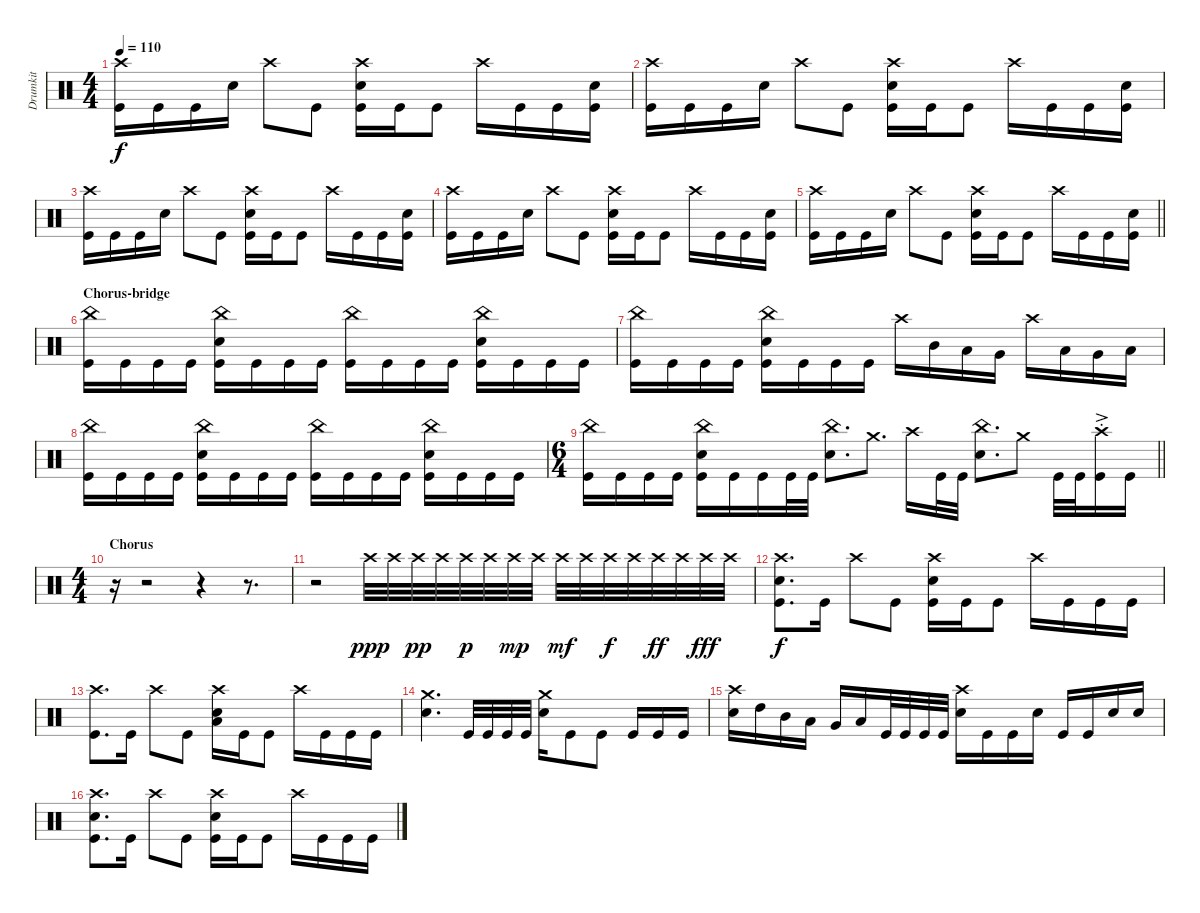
\track ("Drumkit" "Drumkit") {instrument percussion}
\staff {score}
\articulation defaults
\ts (4 4)
\tempo 110
\clef neutral
\ks c
("Crash high (hit)" "Kick (hit)").16{dy f} "Kick (hit)".16 "Kick (hit)".16 "Snare (hit) 2".16 "Crash high (hit)".8 "Kick (hit)".8 ("Crash high (hit)" "Snare (hit) 2" "Kick (hit)").16 "Kick (hit)".16 "Kick (hit)".8 "Crash high (hit)".16 "Kick (hit)".16 "Kick (hit)".16 ("Snare (hit) 2" "Kick (hit)").16 |
("Crash high (hit)" "Kick (hit)").16 "Kick (hit)".16 "Kick (hit)".16 "Snare (hit) 2".16 "Crash high (hit)".8 "Kick (hit)".8 ("Crash high (hit)" "Snare (hit) 2" "Kick (hit)").16 "Kick (hit)".16 "Kick (hit)".8 "Crash high (hit)".16 "Kick (hit)".16 "Kick (hit)".16 ("Snare (hit) 2" "Kick (hit)").16 |
("Crash high (hit)" "Kick (hit)").16 "Kick (hit)".16 "Kick (hit)".16 "Snare (hit) 2".16 "Crash high (hit)".8 "Kick (hit)".8 ("Crash high (hit)" "Snare (hit) 2" "Kick (hit)").16 "Kick (hit)".16 "Kick (hit)".8 "Crash high (hit)".16 "Kick (hit)".16 "Kick (hit)".16 ("Snare (hit) 2" "Kick (hit)").16 |
("Crash high (hit)" "Kick (hit)").16 "Kick (hit)".16 "Kick (hit)".16 "Snare (hit) 2".16 "Crash high (hit)".8 "Kick (hit)".8 ("Crash high (hit)" "Snare (hit) 2" "Kick (hit)").16 "Kick (hit)".16 "Kick (hit)".8 "Crash high (hit)".16 "Kick (hit)".16 "Kick (hit)".16 ("Snare (hit) 2" "Kick (hit)").16 |
\barLineRight lightlight
("Crash high (hit)" "Kick (hit)").16 "Kick (hit)".16 "Kick (hit)".16 "Snare (hit) 2".16 "Crash high (hit)".8 "Kick (hit)".8 ("Crash high (hit)" "Snare (hit) 2" "Kick (hit)").16 "Kick (hit)".16 "Kick (hit)".8 "Crash high (hit)".16 "Kick (hit)".16 "Kick (hit)".16 ("Snare (hit) 2" "Kick (hit)").16 |
\section ("" "Chorus-bridge")
("China (hit)" "Kick (hit)").16 "Kick (hit)".16 "Kick (hit)".16 "Kick (hit)".16 ("China (hit)" "Snare (hit) 2" "Kick (hit)").16 "Kick (hit)".16 "Kick (hit)".16 "Kick (hit)".16 ("China (hit)" "Kick (hit)").16 "Kick (hit)".16 "Kick (hit)".16 "Kick (hit)".16 ("China (hit)" "Snare (hit) 2" "Kick (hit)").16 "Kick (hit)".16 "Kick (hit)".16 "Kick (hit)".16 |
("China (hit)" "Kick (hit)").16 "Kick (hit)".16 "Kick (hit)".16 "Kick (hit)".16 ("China (hit)" "Snare (hit) 2" "Kick (hit)").16 "Kick (hit)".16 "Kick (hit)".16 "Kick (hit)".16 "Crash high (hit)".16 "Mid Tom (hit)".16 "Low Tom (hit)".16 "Very Low Tom (hit)".16 "Crash high (hit)".16 "Low Tom (hit)".16 "Very Low Tom (hit)".16 "Low Floor Tom (hit)".16 |
("China (hit)" "Kick (hit)").16 "Kick (hit)".16 "Kick (hit)".16 "Kick (hit)".16 ("China (hit)" "Snare (hit) 2" "Kick (hit)").16 "Kick (hit)".16 "Kick (hit)".16 "Kick (hit)".16 ("China (hit)" "Kick (hit)").16 "Kick (hit)".16 "Kick (hit)".16 "Kick (hit)".16 ("China (hit)" "Snare (hit) 2" "Kick (hit)").16 "Kick (hit)".16 "Kick (hit)".16 "Kick (hit)".16 |
\ts (6 4)
\barLineRight lightlight
("China (hit)" "Kick (hit)").16 "Kick (hit)".16 "Kick (hit)".16 "Kick (hit)".16 ("China (hit)" "Snare (hit) 2" "Kick (hit)").16 "Kick (hit)".16 "Kick (hit)".16 "Kick (hit)".32 "Kick (hit)".32 ("China (hit)" "Snare (hit) 2").8{d} "Crash medium (hit)".8{d} "Crash high (hit)".16 "Kick (hit)".32 "Kick (hit)".32 ("China (hit)" "Snare (hit) 2").8{d} "Crash medium (hit)".8 "Kick (hit)".32 "Kick (hit)".32 ("Crash high (hit)"{ac st} "Kick (hit)").16 "Kick (hit)".16 |
\ts (4 4)
\section ("" "Chorus")
r.16 r.2 r.4 r.8{d} |
r.2 "Crash high (hit)".32{dy ppp} "Crash high (hit)".32 "Crash high (hit)".32{dy pp} "Crash high (hit)".32 "Crash high (hit)".32{dy p} "Crash high (hit)".32 "Crash high (hit)".32{dy mp} "Crash high (hit)".32 "Crash high (hit)".32{dy mf} "Crash high (hit)".32 "Crash high (hit)".32{dy f} "Crash high (hit)".32 "Crash high (hit)".32{dy ff} "Crash high (hit)".32 "Crash high (hit)".32{dy fff} "Crash high (hit)".32 |
("Crash high (hit)" "Snare (hit) 2" "Kick (hit)").8{d dy f} "Kick (hit)".16 "Crash high (hit)".8 "Kick (hit)".8 ("Crash high (hit)" "Snare (hit) 2" "Kick (hit)").16 "Kick (hit)".16 "Kick (hit)".8 "Crash high (hit)".16 "Kick (hit)".16 "Kick (hit)".16 "Kick (hit)".16 |
("Crash high (hit)" "Kick (hit)").8{d} "Kick (hit)".16 "Crash high (hit)".8 "Kick (hit)".8 ("Crash high (hit)" "Snare (hit) 2" "Low Floor Tom (hit)").16 "Kick (hit)".16 "Kick (hit)".8 "Crash high (hit)".16 "Kick (hit)".16 "Kick (hit)".16 "Kick (hit)".16 |
("Crash medium (hit)" "Snare (hit) 2").4{d} "Kick (hit)".32 "Kick (hit)".32 "Kick (hit)".32 "Kick (hit)".32 ("Crash medium (hit)" "Snare (hit) 2").16 "Kick (hit)".8 "Kick (hit)".8 "Kick (hit)".16 "Kick (hit)".16 "Kick (hit)".16 |
("Crash high (hit)" "Snare (hit) 2").16 "High Tom (hit)".16 "Mid Tom (hit)".16 "Low Tom (hit)".16 "Very Low Tom (hit)".16 "Low Floor Tom (hit)".16 "Kick (hit)".32 "Kick (hit)".32 "Kick (hit)".32 "Kick (hit)".32 ("Crash high (hit)" "Snare (hit) 2").16 "Kick (hit)".16 "Kick (hit)".16 "Snare (hit) 2".16 "Kick (hit)".16 "Kick (hit)".16 "Snare (hit) 2".16 "Snare (hit) 2".16 |
("Crash high (hit)" "Snare (hit) 2" "Kick (hit)").8{d} "Kick (hit)".16 "Crash high (hit)".8 "Kick (hit)".8 ("Crash high (hit)" "Snare (hit) 2" "Kick (hit)").16 "Kick (hit)".16 "Kick (hit)".8 "Crash high (hit)".16 "Kick (hit)".16 "Kick (hit)".16 "Kick (hit)".16
